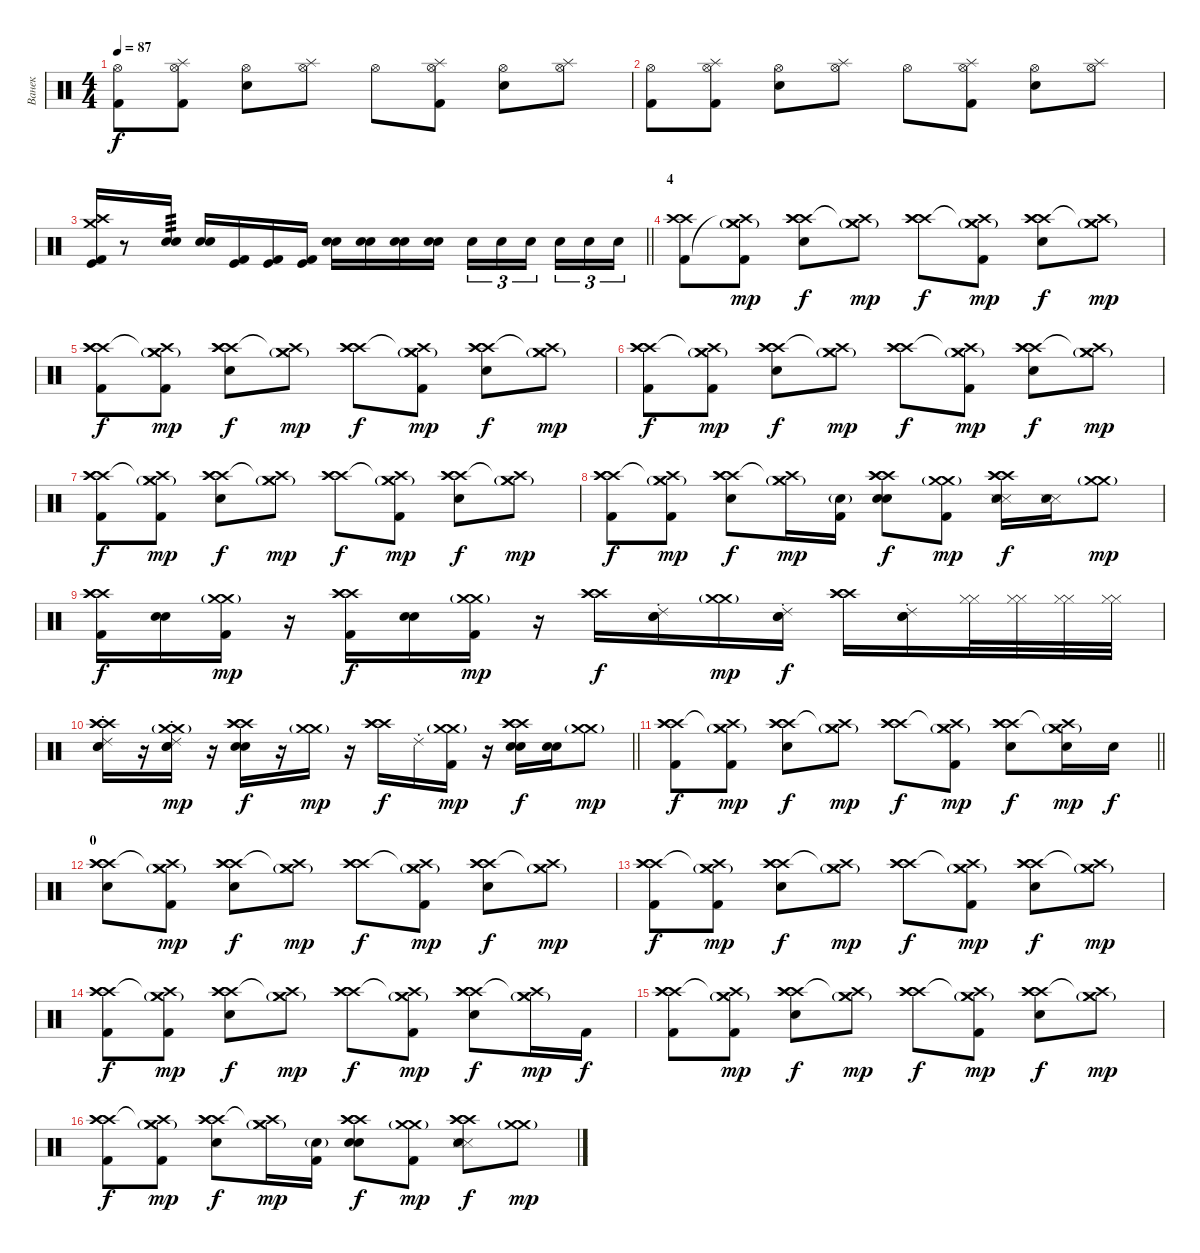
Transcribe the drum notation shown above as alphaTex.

\track ("Ванек" "Ванек") {instrument percussion}
\staff {score}
\articulation defaults
\ts (4 4)
\tempo 87
\clef neutral
\ks c
("Hi-Hat (open)" "Kick (hit) 2").8{dy f} ("Hi-Hat (open)" "Splash (hit)" "Kick (hit) 2").8 ("Hi-Hat (open)" "Snare (hit) 2").8 ("Hi-Hat (open)" "Splash (hit)").8 "Hi-Hat (open)".8 ("Hi-Hat (open)" "Splash (hit)" "Kick (hit) 2").8 ("Hi-Hat (open)" "Snare (hit) 2").8 ("Hi-Hat (open)" "Splash (hit)").8 |
("Hi-Hat (open)" "Kick (hit) 2").8 ("Hi-Hat (open)" "Splash (hit)" "Kick (hit) 2").8 ("Hi-Hat (open)" "Snare (hit) 2").8 ("Hi-Hat (open)" "Splash (hit)").8 "Hi-Hat (open)".8 ("Hi-Hat (open)" "Splash (hit)" "Kick (hit) 2").8 ("Hi-Hat (open)" "Snare (hit) 2").8 ("Hi-Hat (open)" "Splash (hit)").8 |
\barLineRight lightlight
("Crash medium (hit)" "Crash high (hit)" "Kick (hit) 2" "Kick (hit)").16 r.8 ("Snare (hit) 2" "Electric Snare (hit)").16{tp 3} ("Snare (hit) 2" "Electric Snare (hit)").16 ("Kick (hit) 2" "Kick (hit)").16 ("Kick (hit) 2" "Kick (hit)").16 ("Kick (hit) 2" "Kick (hit)").16 ("Snare (hit) 2" "Electric Snare (hit)").16 ("Snare (hit) 2" "Electric Snare (hit)").16 ("Snare (hit) 2" "Electric Snare (hit)").16 ("Snare (hit) 2" "Electric Snare (hit)").16 "Snare (hit) 2".16{tu (3 2)} "Snare (hit) 2".16{tu (3 2)} "Snare (hit) 2".16{tu (3 2) beam splitsecondary} "Snare (hit) 2".16{tu (3 2)} "Snare (hit) 2".16{tu (3 2)} "Snare (hit) 2".16{tu (3 2)} |
\section ("" "4")
("Crash high (hit)" "Crash high (hit)" "Kick (hit) 2").8 ("Crash medium (hit)"{g} "Crash medium (hit)"{g} "Crash high (hit)"{t} "Kick (hit) 2").8{dy mp} ("Crash high (hit)" "Crash high (hit)" "Crash high (hit)" "Snare (hit) 2").8{dy f} ("Crash medium (hit)"{g} "Crash medium (hit)"{g} "Crash high (hit)"{t}).8{dy mp} ("Crash high (hit)" "Crash high (hit)" "Crash high (hit)").8{dy f} ("Crash medium (hit)"{g} "Crash medium (hit)"{g} "Crash high (hit)"{t} "Kick (hit) 2").8{dy mp} ("Crash high (hit)" "Crash high (hit)" "Crash high (hit)" "Snare (hit) 2").8{dy f} ("Crash medium (hit)"{g} "Crash medium (hit)"{g} "Crash high (hit)"{t}).8{dy mp} |
("Crash high (hit)" "Crash high (hit)" "Crash high (hit)" "Kick (hit) 2").8{dy f} ("Crash medium (hit)"{g} "Crash medium (hit)"{g} "Crash high (hit)"{t} "Kick (hit) 2").8{dy mp} ("Crash high (hit)" "Crash high (hit)" "Crash high (hit)" "Snare (hit) 2").8{dy f} ("Crash medium (hit)"{g} "Crash medium (hit)"{g} "Crash high (hit)"{t}).8{dy mp} ("Crash high (hit)" "Crash high (hit)" "Crash high (hit)").8{dy f} ("Crash medium (hit)"{g} "Crash medium (hit)"{g} "Crash high (hit)"{t} "Kick (hit) 2").8{dy mp} ("Crash high (hit)" "Crash high (hit)" "Crash high (hit)" "Snare (hit) 2").8{dy f} ("Crash medium (hit)"{g} "Crash medium (hit)"{g} "Crash high (hit)"{t}).8{dy mp} |
("Crash high (hit)" "Crash high (hit)" "Crash high (hit)" "Kick (hit) 2").8{dy f} ("Crash medium (hit)"{g} "Crash medium (hit)"{g} "Crash high (hit)"{t} "Kick (hit) 2").8{dy mp} ("Crash high (hit)" "Crash high (hit)" "Crash high (hit)" "Snare (hit) 2").8{dy f} ("Crash medium (hit)"{g} "Crash medium (hit)"{g} "Crash high (hit)"{t}).8{dy mp} ("Crash high (hit)" "Crash high (hit)" "Crash high (hit)").8{dy f} ("Crash medium (hit)"{g} "Crash medium (hit)"{g} "Crash high (hit)"{t} "Kick (hit) 2").8{dy mp} ("Crash high (hit)" "Crash high (hit)" "Crash high (hit)" "Snare (hit) 2").8{dy f} ("Crash medium (hit)"{g} "Crash medium (hit)"{g} "Crash high (hit)"{t}).8{dy mp} |
("Crash high (hit)" "Crash high (hit)" "Crash high (hit)" "Kick (hit) 2").8{dy f} ("Crash medium (hit)"{g} "Crash medium (hit)"{g} "Crash high (hit)"{t} "Kick (hit) 2").8{dy mp} ("Crash high (hit)" "Crash high (hit)" "Crash high (hit)" "Snare (hit) 2").8{dy f} ("Crash medium (hit)"{g} "Crash medium (hit)"{g} "Crash high (hit)"{t}).8{dy mp} ("Crash high (hit)" "Crash high (hit)" "Crash high (hit)").8{dy f} ("Crash medium (hit)"{g} "Crash medium (hit)"{g} "Crash high (hit)"{t} "Kick (hit) 2").8{dy mp} ("Crash high (hit)" "Crash high (hit)" "Crash high (hit)" "Snare (hit) 2").8{dy f} ("Crash medium (hit)"{g} "Crash medium (hit)"{g} "Crash high (hit)"{t}).8{dy mp} |
("Crash high (hit)" "Crash high (hit)" "Crash high (hit)" "Kick (hit) 2").8{dy f} ("Crash medium (hit)"{g} "Crash medium (hit)"{g} "Crash high (hit)"{t} "Kick (hit) 2").8{dy mp} ("Crash high (hit)" "Crash high (hit)" "Crash high (hit)" "Snare (hit) 2").8{dy f} ("Crash medium (hit)"{g} "Crash medium (hit)"{g} "Crash high (hit)"{t}).16{dy mp} ("Electric Snare (hit)"{g} "Kick (hit) 2").16 ("Crash high (hit)" "Crash high (hit)" "Crash high (hit)" "Electric Snare (hit)" "Snare (hit) 2").8{dy f} ("Crash medium (hit)"{g} "Crash medium (hit)"{g} "Kick (hit) 2").8{dy mp} ("Crash high (hit)" "Crash high (hit)" "Crash high (hit)" "Snare (side stick) 3" "Snare (hit) 2" "Snare (side stick) 3").16{dy f} ("Snare (side stick) 3" "Snare (hit) 2" "Snare (side stick) 3").16 ("Crash medium (hit)"{g} "Crash medium (hit)"{g}).8{dy mp} |
("Crash high (hit)" "Crash high (hit)" "Crash high (hit)" "Kick (hit) 2").16{dy f} ("Snare (hit) 2" "Electric Snare (hit)").16 ("Crash medium (hit)"{g} "Crash medium (hit)"{g} "Kick (hit) 2").16{dy mp} r.16 ("Crash high (hit)" "Crash high (hit)" "Crash high (hit)" "Kick (hit) 2").16{dy f} ("Snare (hit) 2" "Electric Snare (hit)").16 ("Crash medium (hit)"{g} "Crash medium (hit)"{g} "Kick (hit) 2").16{dy mp} r.16 ("Crash high (hit)" "Crash high (hit)" "Crash high (hit)").16{dy f} ("Snare (hit) 2" "Electric Snare (hit)" "Ride (choke) 2").16 ("Crash medium (hit)"{g} "Crash medium (hit)"{g}).16{dy mp} ("Snare (hit) 2" "Electric Snare (hit)" "Ride (choke) 2").16{dy f} ("Crash high (hit)" "Crash high (hit)" "Crash high (hit)").16 ("Snare (hit) 2" "Electric Snare (hit)" "Ride (choke) 2").16 ("Hi-Hat (closed)" "Hi-Hat (closed)").32 ("Hi-Hat (closed)" "Hi-Hat (closed)").32 ("Hi-Hat (closed)" "Hi-Hat (closed)").32 ("Hi-Hat (closed)" "Hi-Hat (closed)").32 |
\barLineRight lightlight
("Crash high (hit)" "Crash high (hit)" "Crash high (hit)" "Snare (hit) 2" "Electric Snare (hit)" "Ride (choke) 2").16 r.16 ("Crash medium (hit)"{g} "Crash medium (hit)"{g} "Snare (hit) 2" "Electric Snare (hit)" "Ride (choke) 2").16{dy mp} r.16 ("Crash high (hit)" "Crash high (hit)" "Crash high (hit)" "Snare (hit) 2" "Snare (hit) 2").16{dy f} r.16 ("Crash medium (hit)"{g} "Crash medium (hit)"{g}).16{dy mp} r.16 ("Crash high (hit)" "Crash high (hit)" "Crash high (hit)").16{dy f} "Ride (choke) 2".16 ("Crash medium (hit)"{g} "Crash medium (hit)"{g} "Kick (hit) 2").16{dy mp} r.16 ("Crash high (hit)" "Crash high (hit)" "Crash high (hit)" "Snare (hit) 2" "Electric Snare (hit)").16{dy f} ("Snare (hit) 2" "Electric Snare (hit)").16 ("Crash medium (hit)"{g} "Crash medium (hit)"{g}).8{dy mp} |
\section ("" "")
\barLineRight lightlight
("Crash high (hit)" "Crash high (hit)" "Crash high (hit)" "Kick (hit) 2").8{dy f} ("Crash medium (hit)"{g} "Crash medium (hit)"{g} "Crash high (hit)"{t} "Kick (hit) 2").8{dy mp} ("Crash high (hit)" "Crash high (hit)" "Crash high (hit)" "Snare (hit) 2").8{dy f} ("Crash medium (hit)"{g} "Crash medium (hit)"{g} "Crash high (hit)"{t}).8{dy mp} ("Crash high (hit)" "Crash high (hit)" "Crash high (hit)").8{dy f} ("Crash medium (hit)"{g} "Crash medium (hit)"{g} "Crash high (hit)"{t} "Kick (hit) 2").8{dy mp} ("Crash high (hit)" "Crash high (hit)" "Crash high (hit)" "Snare (hit) 2").8{dy f} ("Crash medium (hit)"{g} "Crash medium (hit)"{g} "Crash high (hit)"{t} "Snare (hit) 2").16{dy mp} "Snare (hit) 2".16{dy f} |
\section ("" "0")
("Crash high (hit)" "Crash high (hit)" "Crash high (hit)" "Snare (hit) 2").8 ("Crash medium (hit)"{g} "Crash medium (hit)"{g} "Crash high (hit)"{t} "Kick (hit) 2").8{dy mp} ("Crash high (hit)" "Crash high (hit)" "Crash high (hit)" "Snare (hit) 2").8{dy f} ("Crash medium (hit)"{g} "Crash medium (hit)"{g} "Crash high (hit)"{t}).8{dy mp} ("Crash high (hit)" "Crash high (hit)" "Crash high (hit)").8{dy f} ("Crash medium (hit)"{g} "Crash medium (hit)"{g} "Crash high (hit)"{t} "Kick (hit) 2").8{dy mp} ("Crash high (hit)" "Crash high (hit)" "Crash high (hit)" "Snare (hit) 2").8{dy f} ("Crash medium (hit)"{g} "Crash medium (hit)"{g} "Crash high (hit)"{t}).8{dy mp} |
("Crash high (hit)" "Crash high (hit)" "Crash high (hit)" "Kick (hit) 2").8{dy f} ("Crash medium (hit)"{g} "Crash medium (hit)"{g} "Crash high (hit)"{t} "Kick (hit) 2").8{dy mp} ("Crash high (hit)" "Crash high (hit)" "Crash high (hit)" "Snare (hit) 2").8{dy f} ("Crash medium (hit)"{g} "Crash medium (hit)"{g} "Crash high (hit)"{t}).8{dy mp} ("Crash high (hit)" "Crash high (hit)" "Crash high (hit)").8{dy f} ("Crash medium (hit)"{g} "Crash medium (hit)"{g} "Crash high (hit)"{t} "Kick (hit) 2").8{dy mp} ("Crash high (hit)" "Crash high (hit)" "Crash high (hit)" "Snare (hit) 2").8{dy f} ("Crash medium (hit)"{g} "Crash medium (hit)"{g} "Crash high (hit)"{t}).8{dy mp} |
("Crash high (hit)" "Crash high (hit)" "Crash high (hit)" "Kick (hit) 2").8{dy f} ("Crash medium (hit)"{g} "Crash medium (hit)"{g} "Crash high (hit)"{t} "Kick (hit) 2").8{dy mp} ("Crash high (hit)" "Crash high (hit)" "Crash high (hit)" "Snare (hit) 2").8{dy f} ("Crash medium (hit)"{g} "Crash medium (hit)"{g} "Crash high (hit)"{t}).8{dy mp} ("Crash high (hit)" "Crash high (hit)" "Crash high (hit)").8{dy f} ("Crash medium (hit)"{g} "Crash medium (hit)"{g} "Crash high (hit)"{t} "Kick (hit) 2").8{dy mp} ("Crash high (hit)" "Crash high (hit)" "Crash high (hit)" "Snare (hit) 2").8{dy f} ("Crash medium (hit)"{g} "Crash medium (hit)"{g} "Crash high (hit)"{t}).16{dy mp} "Kick (hit) 2".16{dy f} |
("Crash high (hit)" "Crash high (hit)" "Crash high (hit)" "Kick (hit) 2").8 ("Crash medium (hit)"{g} "Crash medium (hit)"{g} "Crash high (hit)"{t} "Kick (hit) 2").8{dy mp} ("Crash high (hit)" "Crash high (hit)" "Crash high (hit)" "Snare (hit) 2").8{dy f} ("Crash medium (hit)"{g} "Crash medium (hit)"{g} "Crash high (hit)"{t}).8{dy mp} ("Crash high (hit)" "Crash high (hit)" "Crash high (hit)").8{dy f} ("Crash medium (hit)"{g} "Crash medium (hit)"{g} "Crash high (hit)"{t} "Kick (hit) 2").8{dy mp} ("Crash high (hit)" "Crash high (hit)" "Crash high (hit)" "Snare (hit) 2").8{dy f} ("Crash medium (hit)"{g} "Crash medium (hit)"{g} "Crash high (hit)"{t}).8{dy mp} |
("Crash high (hit)" "Crash high (hit)" "Crash high (hit)" "Kick (hit) 2").8{dy f} ("Crash medium (hit)"{g} "Crash medium (hit)"{g} "Crash high (hit)"{t} "Kick (hit) 2").8{dy mp} ("Crash high (hit)" "Crash high (hit)" "Crash high (hit)" "Snare (hit) 2").8{dy f} ("Crash medium (hit)"{g} "Crash medium (hit)"{g} "Crash high (hit)"{t}).16{dy mp} ("Electric Snare (hit)"{g} "Kick (hit) 2").16 ("Crash high (hit)" "Crash high (hit)" "Crash high (hit)" "Electric Snare (hit)" "Snare (hit) 2").8{dy f} ("Crash medium (hit)"{g} "Crash medium (hit)"{g} "Kick (hit) 2").8{dy mp} ("Crash high (hit)" "Crash high (hit)" "Crash high (hit)" "Snare (side stick) 3" "Snare (hit) 2" "Snare (side stick) 3").8{dy f} ("Crash medium (hit)"{g} "Crash medium (hit)"{g}).8{dy mp}
